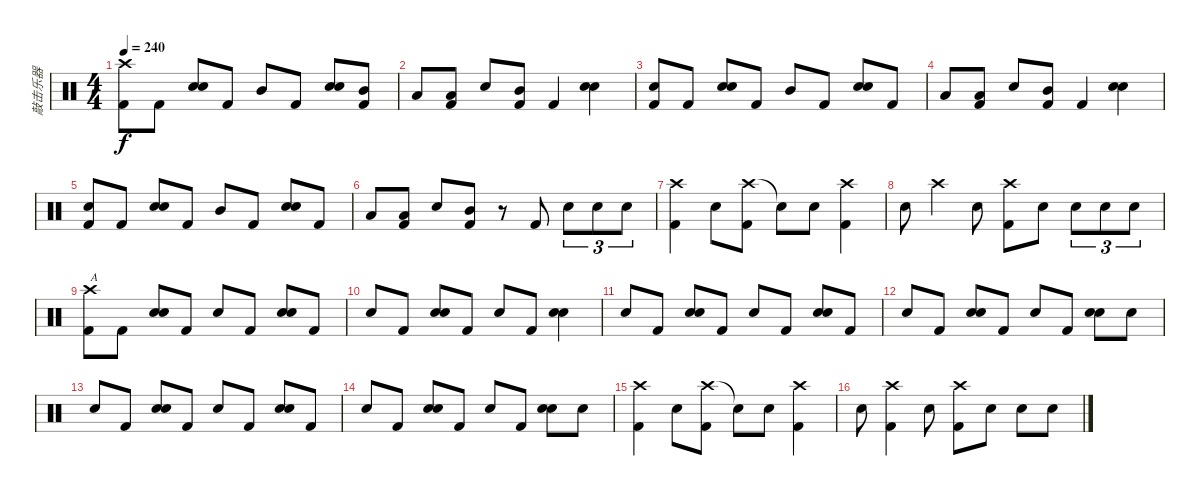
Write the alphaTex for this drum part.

\track ("敲击乐器" "敲击乐器") {instrument percussion}
\staff {score}
\articulation defaults
\ts (4 4)
\tempo 240
\clef neutral
\ks c
("Crash high (hit)" "Kick (hit) 2").8{dy f} "Kick (hit) 2".8 ("Electric Snare (hit)" "Snare (hit) 2").8 "Kick (hit) 2".8 "Mid Tom (hit)".8 "Kick (hit) 2".8 ("Electric Snare (hit)" "Snare (hit) 2").8 ("Mid Tom (hit)" "Kick (hit) 2").8 |
"Low Tom (hit)".8 ("Low Tom (hit)" "Kick (hit) 2").8 "Electric Snare (hit)".8 ("Mid Tom (hit)" "Kick (hit) 2").8 "Kick (hit) 2".4 ("Electric Snare (hit)" "Snare (hit) 2").4 |
("Snare (hit) 2" "Kick (hit) 2").8 "Kick (hit) 2".8 ("Electric Snare (hit)" "Snare (hit) 2").8 "Kick (hit) 2".8 "Mid Tom (hit)".8 "Kick (hit) 2".8 ("Electric Snare (hit)" "Snare (hit) 2").8 "Kick (hit) 2".8 |
"Low Tom (hit)".8 ("Low Tom (hit)" "Kick (hit) 2").8 "Electric Snare (hit)".8 ("Mid Tom (hit)" "Kick (hit) 2").8 "Kick (hit) 2".4 ("Electric Snare (hit)" "Snare (hit) 2").4 |
("Snare (hit) 2" "Kick (hit) 2").8 "Kick (hit) 2".8 ("Electric Snare (hit)" "Snare (hit) 2").8 "Kick (hit) 2".8 "Mid Tom (hit)".8 "Kick (hit) 2".8 ("Electric Snare (hit)" "Snare (hit) 2").8 "Kick (hit) 2".8 |
"Low Tom (hit)".8 ("Low Tom (hit)" "Kick (hit) 2").8 "Electric Snare (hit)".8 ("Mid Tom (hit)" "Kick (hit) 2").8 r.8 "Kick (hit) 2".8 "Electric Snare (hit)".8{tu (3 2)} "Electric Snare (hit)".8{tu (3 2)} "Electric Snare (hit)".8{tu (3 2)} |
("Crash high (hit)" "Kick (hit) 2").4 "Electric Snare (hit)".8 ("Crash high (hit)" "Kick (hit) 2").8 "Snare (hit)"{t}.8 "Electric Snare (hit)".8 ("Crash high (hit)" "Kick (hit) 2").4 |
"Electric Snare (hit)".8 "Crash high (hit)".4 "Electric Snare (hit)".8 ("Crash high (hit)" "Kick (hit) 2").8 "Electric Snare (hit)".8 "Electric Snare (hit)".8{tu (3 2)} "Electric Snare (hit)".8{tu (3 2)} "Electric Snare (hit)".8{tu (3 2)} |
("Crash high (hit)" "Kick (hit) 2").8{txt "A"} "Kick (hit) 2".8 ("Electric Snare (hit)" "Snare (hit) 2").8 "Kick (hit) 2".8 "Snare (hit) 2".8 "Kick (hit) 2".8 ("Electric Snare (hit)" "Snare (hit) 2").8 "Kick (hit) 2".8 |
"Snare (hit) 2".8 "Kick (hit) 2".8 ("Electric Snare (hit)" "Snare (hit) 2").8 "Kick (hit) 2".8 "Snare (hit) 2".8 "Kick (hit) 2".8 ("Electric Snare (hit)" "Snare (hit) 2").4 |
"Snare (hit) 2".8 "Kick (hit) 2".8 ("Electric Snare (hit)" "Snare (hit) 2").8 "Kick (hit) 2".8 "Snare (hit) 2".8 "Kick (hit) 2".8 ("Electric Snare (hit)" "Snare (hit) 2").8 "Kick (hit) 2".8 |
"Snare (hit) 2".8 "Kick (hit) 2".8 ("Electric Snare (hit)" "Snare (hit) 2").8 "Kick (hit) 2".8 "Snare (hit) 2".8 "Kick (hit) 2".8 ("Electric Snare (hit)" "Snare (hit) 2").8 "Electric Snare (hit)".8 |
"Snare (hit) 2".8 "Kick (hit) 2".8 ("Electric Snare (hit)" "Snare (hit) 2").8 "Kick (hit) 2".8 "Snare (hit) 2".8 "Kick (hit) 2".8 ("Electric Snare (hit)" "Snare (hit) 2").8 "Kick (hit) 2".8 |
"Snare (hit) 2".8 "Kick (hit) 2".8 ("Electric Snare (hit)" "Snare (hit) 2").8 "Kick (hit) 2".8 "Snare (hit) 2".8 "Kick (hit) 2".8 ("Electric Snare (hit)" "Snare (hit) 2").8 "Electric Snare (hit)".8 |
("Crash high (hit)" "Kick (hit) 2").4 "Electric Snare (hit)".8 ("Crash high (hit)" "Kick (hit) 2").8 "Snare (hit)"{t}.8 "Electric Snare (hit)".8 ("Crash high (hit)" "Kick (hit) 2").4 |
"Electric Snare (hit)".8 ("Crash high (hit)" "Kick (hit) 2").4 "Electric Snare (hit)".8 ("Crash high (hit)" "Kick (hit) 2").8 "Electric Snare (hit)".8 "Electric Snare (hit)".8 "Electric Snare (hit)".8
